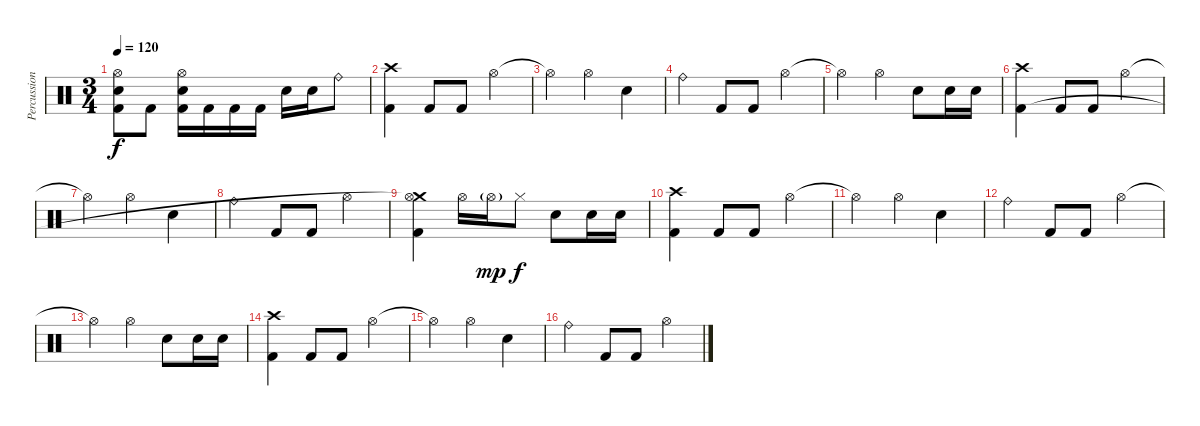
\track ("Percussion" "Percussion") {instrument percussion}
\staff {score}
\articulation defaults
\ts (3 4)
\tempo 120
\clef neutral
\ks c
("Hi-Hat (open)" "Electric Snare (hit)" "Kick (hit) 2").8{dy f} "Kick (hit) 2".8 ("Hi-Hat (open)" "Electric Snare (hit)" "Kick (hit) 2").16 "Kick (hit) 2".16 "Kick (hit) 2".16 "Kick (hit) 2".16 "Electric Snare (hit)".16 "Electric Snare (hit)".16 "Ride (bell)".8 |
("Crash high (hit)" "Kick (hit) 2").4 "Kick (hit) 2".8 "Kick (hit) 2".8 "Hi-Hat (open)".4 |
"Hi-Hat (open)"{t}.4 "Hi-Hat (open)".4 "Electric Snare (hit)".4 |
"Ride (bell)".4 "Kick (hit) 2".8 "Kick (hit) 2".8 "Hi-Hat (open)".4 |
"Hi-Hat (open)"{t}.4 "Hi-Hat (open)".4 "Electric Snare (hit)".8 "Electric Snare (hit)".16 "Electric Snare (hit)".16 |
("Crash high (hit)" "Kick (hit) 2").4 "Kick (hit) 2".8 "Kick (hit) 2".8 "Hi-Hat (open)".4 |
"Hi-Hat (open)"{t}.4 "Hi-Hat (open)".4 "Electric Snare (hit)".4 |
"Ride (bell)".4 "Kick (hit) 2".8 "Kick (hit) 2".8 "Hi-Hat (open)".4 |
("Crash medium (hit)" "Hi-Hat (open)"{t} "Kick (hit) 2").4 "Hi-Hat (open)".16 "Hi-Hat (open)"{g}.16{dy mp} "Hi-Hat (closed)".8{dy f} "Electric Snare (hit)".8 "Electric Snare (hit)".16 "Electric Snare (hit)".16 |
("Crash high (hit)" "Kick (hit) 2").4 "Kick (hit) 2".8 "Kick (hit) 2".8 "Hi-Hat (open)".4 |
"Hi-Hat (open)"{t}.4 "Hi-Hat (open)".4 "Electric Snare (hit)".4 |
"Ride (bell)".4 "Kick (hit) 2".8 "Kick (hit) 2".8 "Hi-Hat (open)".4 |
"Hi-Hat (open)"{t}.4 "Hi-Hat (open)".4 "Electric Snare (hit)".8 "Electric Snare (hit)".16 "Electric Snare (hit)".16 |
("Crash high (hit)" "Kick (hit) 2").4 "Kick (hit) 2".8 "Kick (hit) 2".8 "Hi-Hat (open)".4 |
"Hi-Hat (open)"{t}.4 "Hi-Hat (open)".4 "Electric Snare (hit)".4 |
"Ride (bell)".4 "Kick (hit) 2".8 "Kick (hit) 2".8 "Hi-Hat (open)".4
